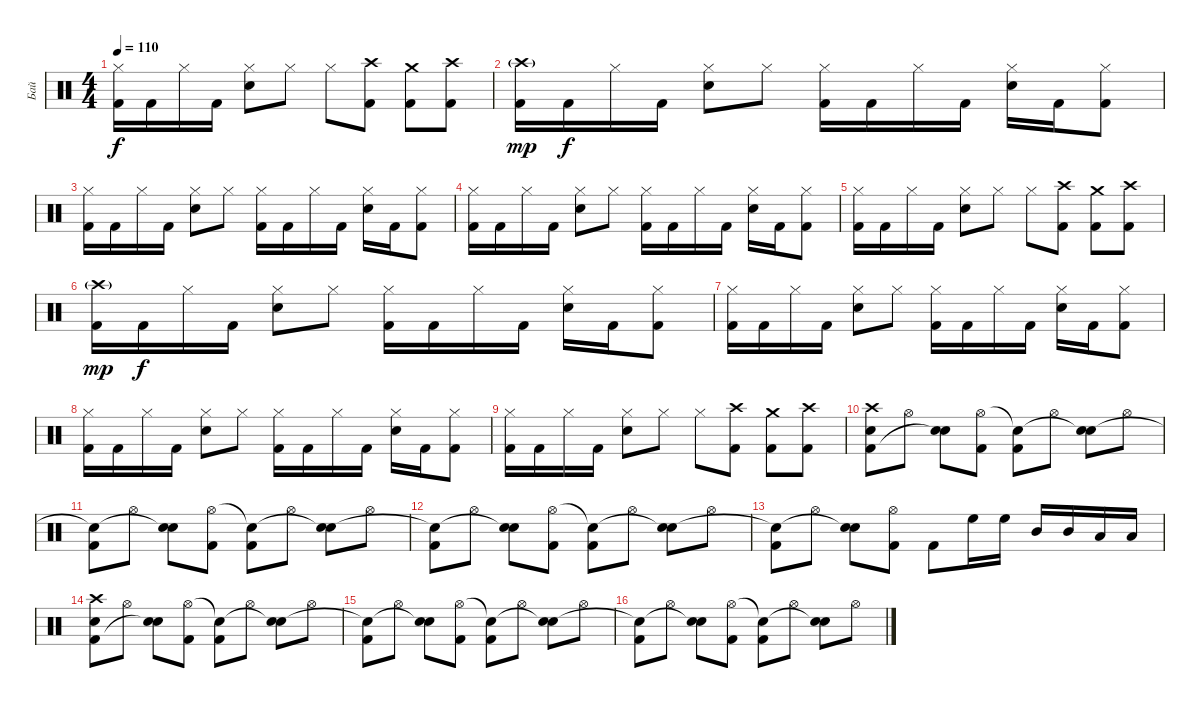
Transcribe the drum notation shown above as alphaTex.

\track ("Бай" "Бай") {instrument percussion}
\staff {score}
\articulation defaults
\ts (4 4)
\tempo 110
\clef neutral
\ks c
("Kick (hit) 2" "Hi-Hat (closed)").16{dy f} "Kick (hit) 2".16 "Hi-Hat (closed)".16 "Kick (hit) 2".16 ("Electric Snare (hit)" "Hi-Hat (closed)").8 "Hi-Hat (closed)".8 "Hi-Hat (closed)".8 ("Crash high (hit)" "Kick (hit) 2").8 ("Crash medium (hit)" "Kick (hit) 2").8 ("Crash high (hit)" "Kick (hit) 2").8 |
("Crash high (hit)"{g} "Kick (hit) 2").16{dy mp} "Kick (hit) 2".16{dy f} "Hi-Hat (closed)".16 "Kick (hit) 2".16 ("Electric Snare (hit)" "Hi-Hat (closed)").8 "Hi-Hat (closed)".8 ("Kick (hit) 2" "Hi-Hat (closed)").16 "Kick (hit) 2".16 "Hi-Hat (closed)".16 "Kick (hit) 2".16 ("Electric Snare (hit)" "Hi-Hat (closed)").16 "Kick (hit) 2".16 ("Kick (hit) 2" "Hi-Hat (closed)").8 |
("Kick (hit) 2" "Hi-Hat (closed)").16 "Kick (hit) 2".16 "Hi-Hat (closed)".16 "Kick (hit) 2".16 ("Electric Snare (hit)" "Hi-Hat (closed)").8 "Hi-Hat (closed)".8 ("Kick (hit) 2" "Hi-Hat (closed)").16 "Kick (hit) 2".16 "Hi-Hat (closed)".16 "Kick (hit) 2".16 ("Electric Snare (hit)" "Hi-Hat (closed)").16 "Kick (hit) 2".16 ("Kick (hit) 2" "Hi-Hat (closed)").8 |
("Kick (hit) 2" "Hi-Hat (closed)").16 "Kick (hit) 2".16 "Hi-Hat (closed)".16 "Kick (hit) 2".16 ("Electric Snare (hit)" "Hi-Hat (closed)").8 "Hi-Hat (closed)".8 ("Kick (hit) 2" "Hi-Hat (closed)").16 "Kick (hit) 2".16 "Hi-Hat (closed)".16 "Kick (hit) 2".16 ("Electric Snare (hit)" "Hi-Hat (closed)").16 "Kick (hit) 2".16 ("Kick (hit) 2" "Hi-Hat (closed)").8 |
("Kick (hit) 2" "Hi-Hat (closed)").16 "Kick (hit) 2".16 "Hi-Hat (closed)".16 "Kick (hit) 2".16 ("Electric Snare (hit)" "Hi-Hat (closed)").8 "Hi-Hat (closed)".8 "Hi-Hat (closed)".8 ("Crash high (hit)" "Kick (hit) 2").8 ("Crash medium (hit)" "Kick (hit) 2").8 ("Crash high (hit)" "Kick (hit) 2").8 |
("Crash high (hit)"{g} "Kick (hit) 2").16{dy mp} "Kick (hit) 2".16{dy f} "Hi-Hat (closed)".16 "Kick (hit) 2".16 ("Electric Snare (hit)" "Hi-Hat (closed)").8 "Hi-Hat (closed)".8 ("Kick (hit) 2" "Hi-Hat (closed)").16 "Kick (hit) 2".16 "Hi-Hat (closed)".16 "Kick (hit) 2".16 ("Electric Snare (hit)" "Hi-Hat (closed)").16 "Kick (hit) 2".16 ("Kick (hit) 2" "Hi-Hat (closed)").8 |
("Kick (hit) 2" "Hi-Hat (closed)").16 "Kick (hit) 2".16 "Hi-Hat (closed)".16 "Kick (hit) 2".16 ("Electric Snare (hit)" "Hi-Hat (closed)").8 "Hi-Hat (closed)".8 ("Kick (hit) 2" "Hi-Hat (closed)").16 "Kick (hit) 2".16 "Hi-Hat (closed)".16 "Kick (hit) 2".16 ("Electric Snare (hit)" "Hi-Hat (closed)").16 "Kick (hit) 2".16 ("Kick (hit) 2" "Hi-Hat (closed)").8 |
("Kick (hit) 2" "Hi-Hat (closed)").16 "Kick (hit) 2".16 "Hi-Hat (closed)".16 "Kick (hit) 2".16 ("Electric Snare (hit)" "Hi-Hat (closed)").8 "Hi-Hat (closed)".8 ("Kick (hit) 2" "Hi-Hat (closed)").16 "Kick (hit) 2".16 "Hi-Hat (closed)".16 "Kick (hit) 2".16 ("Electric Snare (hit)" "Hi-Hat (closed)").16 "Kick (hit) 2".16 ("Kick (hit) 2" "Hi-Hat (closed)").8 |
("Kick (hit) 2" "Hi-Hat (closed)").16 "Kick (hit) 2".16 "Hi-Hat (closed)".16 "Kick (hit) 2".16 ("Electric Snare (hit)" "Hi-Hat (closed)").8 "Hi-Hat (closed)".8 "Hi-Hat (closed)".8 ("Crash high (hit)" "Kick (hit) 2").8 ("Crash medium (hit)" "Kick (hit) 2").8 ("Crash high (hit)" "Kick (hit) 2").8 |
("Crash high (hit)" "Kick (hit) 2" "Snare (hit)").8 "Hi-Hat (open)".8 ("Electric Snare (hit)" "Snare (hit)"{t}).8 ("Kick (hit) 2" "Hi-Hat (open)").8 ("Kick (hit) 2" "Snare (hit)"{t}).8 "Hi-Hat (open)".8 ("Electric Snare (hit)" "Snare (hit)"{t}).8 "Hi-Hat (open)".8 |
("Kick (hit) 2" "Snare (hit)"{t}).8 "Hi-Hat (open)".8 ("Electric Snare (hit)" "Snare (hit)"{t}).8 ("Kick (hit) 2" "Hi-Hat (open)").8 ("Kick (hit) 2" "Snare (hit)"{t}).8 "Hi-Hat (open)".8 ("Electric Snare (hit)" "Snare (hit)"{t}).8 "Hi-Hat (open)".8 |
("Kick (hit) 2" "Snare (hit)"{t}).8 "Hi-Hat (open)".8 ("Electric Snare (hit)" "Snare (hit)"{t}).8 ("Kick (hit) 2" "Hi-Hat (open)").8 ("Kick (hit) 2" "Snare (hit)"{t}).8 "Hi-Hat (open)".8 ("Electric Snare (hit)" "Snare (hit)"{t}).8 "Hi-Hat (open)".8 |
("Kick (hit) 2" "Snare (hit)"{t}).8 "Hi-Hat (open)".8 ("Electric Snare (hit)" "Snare (hit)"{t}).8 ("Kick (hit) 2" "Hi-Hat (open)").8 "Kick (hit) 2".8 "High Floor Tom (hit)".16 "High Floor Tom (hit)".16 "Mid Tom (hit)".16 "Mid Tom (hit)".16 "Low Tom (hit)".16 "Low Tom (hit)".16 |
("Crash high (hit)" "Kick (hit) 2" "Snare (hit)").8 "Hi-Hat (open)".8 ("Electric Snare (hit)" "Snare (hit)"{t}).8 ("Kick (hit) 2" "Hi-Hat (open)").8 ("Kick (hit) 2" "Snare (hit)"{t}).8 "Hi-Hat (open)".8 ("Electric Snare (hit)" "Snare (hit)"{t}).8 "Hi-Hat (open)".8 |
("Kick (hit) 2" "Snare (hit)"{t}).8 "Hi-Hat (open)".8 ("Electric Snare (hit)" "Snare (hit)"{t}).8 ("Kick (hit) 2" "Hi-Hat (open)").8 ("Kick (hit) 2" "Snare (hit)"{t}).8 "Hi-Hat (open)".8 ("Electric Snare (hit)" "Snare (hit)"{t}).8 "Hi-Hat (open)".8 |
("Kick (hit) 2" "Snare (hit)"{t}).8 "Hi-Hat (open)".8 ("Electric Snare (hit)" "Snare (hit)"{t}).8 ("Kick (hit) 2" "Hi-Hat (open)").8 ("Kick (hit) 2" "Snare (hit)"{t}).8 "Hi-Hat (open)".8 ("Electric Snare (hit)" "Snare (hit)"{t}).8 "Hi-Hat (open)".8
